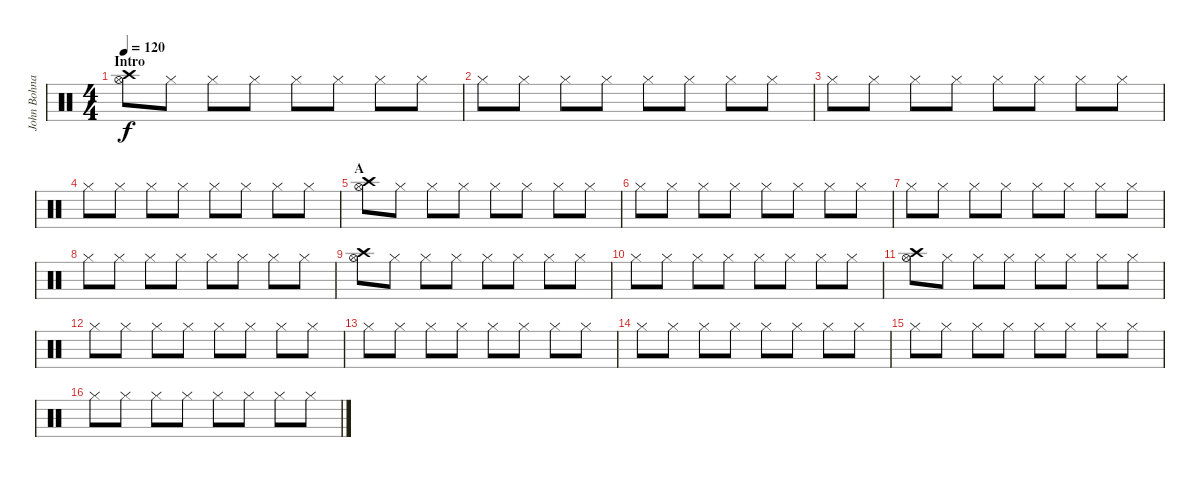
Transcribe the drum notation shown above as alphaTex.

\track ("John Bohnam - Charley Cym." "John Bohna") {instrument percussion}
\staff {score}
\articulation defaults
\ts (4 4)
\section ("" "Intro")
\tempo 120
\clef neutral
\ks c
("Hi-Hat (open)" "Crash high (hit)").8{dy f} "Hi-Hat (closed)".8 "Hi-Hat (closed)".8 "Hi-Hat (closed)".8 "Hi-Hat (closed)".8 "Hi-Hat (closed)".8 "Hi-Hat (closed)".8 "Hi-Hat (closed)".8 |
"Hi-Hat (closed)".8 "Hi-Hat (closed)".8 "Hi-Hat (closed)".8 "Hi-Hat (closed)".8 "Hi-Hat (closed)".8 "Hi-Hat (closed)".8 "Hi-Hat (closed)".8 "Hi-Hat (closed)".8 |
"Hi-Hat (closed)".8 "Hi-Hat (closed)".8 "Hi-Hat (closed)".8 "Hi-Hat (closed)".8 "Hi-Hat (closed)".8 "Hi-Hat (closed)".8 "Hi-Hat (closed)".8 "Hi-Hat (closed)".8 |
"Hi-Hat (closed)".8 "Hi-Hat (closed)".8 "Hi-Hat (closed)".8 "Hi-Hat (closed)".8 "Hi-Hat (closed)".8 "Hi-Hat (closed)".8 "Hi-Hat (closed)".8 "Hi-Hat (closed)".8 |
\section ("" "A")
("Hi-Hat (open)" "Crash high (hit)").8 "Hi-Hat (closed)".8 "Hi-Hat (closed)".8 "Hi-Hat (closed)".8 "Hi-Hat (closed)".8 "Hi-Hat (closed)".8 "Hi-Hat (closed)".8 "Hi-Hat (closed)".8 |
"Hi-Hat (closed)".8 "Hi-Hat (closed)".8 "Hi-Hat (closed)".8 "Hi-Hat (closed)".8 "Hi-Hat (closed)".8 "Hi-Hat (closed)".8 "Hi-Hat (closed)".8 "Hi-Hat (closed)".8 |
"Hi-Hat (closed)".8 "Hi-Hat (closed)".8 "Hi-Hat (closed)".8 "Hi-Hat (closed)".8 "Hi-Hat (closed)".8 "Hi-Hat (closed)".8 "Hi-Hat (closed)".8 "Hi-Hat (closed)".8 |
"Hi-Hat (closed)".8 "Hi-Hat (closed)".8 "Hi-Hat (closed)".8 "Hi-Hat (closed)".8 "Hi-Hat (closed)".8 "Hi-Hat (closed)".8 "Hi-Hat (closed)".8 "Hi-Hat (closed)".8 |
("Hi-Hat (open)" "Crash high (hit)").8 "Hi-Hat (closed)".8 "Hi-Hat (closed)".8 "Hi-Hat (closed)".8 "Hi-Hat (closed)".8 "Hi-Hat (closed)".8 "Hi-Hat (closed)".8 "Hi-Hat (closed)".8 |
"Hi-Hat (closed)".8 "Hi-Hat (closed)".8 "Hi-Hat (closed)".8 "Hi-Hat (closed)".8 "Hi-Hat (closed)".8 "Hi-Hat (closed)".8 "Hi-Hat (closed)".8 "Hi-Hat (closed)".8 |
("Hi-Hat (open)" "Crash high (hit)").8 "Hi-Hat (closed)".8 "Hi-Hat (closed)".8 "Hi-Hat (closed)".8 "Hi-Hat (closed)".8 "Hi-Hat (closed)".8 "Hi-Hat (closed)".8 "Hi-Hat (closed)".8 |
"Hi-Hat (closed)".8 "Hi-Hat (closed)".8 "Hi-Hat (closed)".8 "Hi-Hat (closed)".8 "Hi-Hat (closed)".8 "Hi-Hat (closed)".8 "Hi-Hat (closed)".8 "Hi-Hat (closed)".8 |
"Hi-Hat (closed)".8 "Hi-Hat (closed)".8 "Hi-Hat (closed)".8 "Hi-Hat (closed)".8 "Hi-Hat (closed)".8 "Hi-Hat (closed)".8 "Hi-Hat (closed)".8 "Hi-Hat (closed)".8 |
"Hi-Hat (closed)".8 "Hi-Hat (closed)".8 "Hi-Hat (closed)".8 "Hi-Hat (closed)".8 "Hi-Hat (closed)".8 "Hi-Hat (closed)".8 "Hi-Hat (closed)".8 "Hi-Hat (closed)".8 |
"Hi-Hat (closed)".8 "Hi-Hat (closed)".8 "Hi-Hat (closed)".8 "Hi-Hat (closed)".8 "Hi-Hat (closed)".8 "Hi-Hat (closed)".8 "Hi-Hat (closed)".8 "Hi-Hat (closed)".8 |
"Hi-Hat (closed)".8 "Hi-Hat (closed)".8 "Hi-Hat (closed)".8 "Hi-Hat (closed)".8 "Hi-Hat (closed)".8 "Hi-Hat (closed)".8 "Hi-Hat (closed)".8 "Hi-Hat (closed)".8
